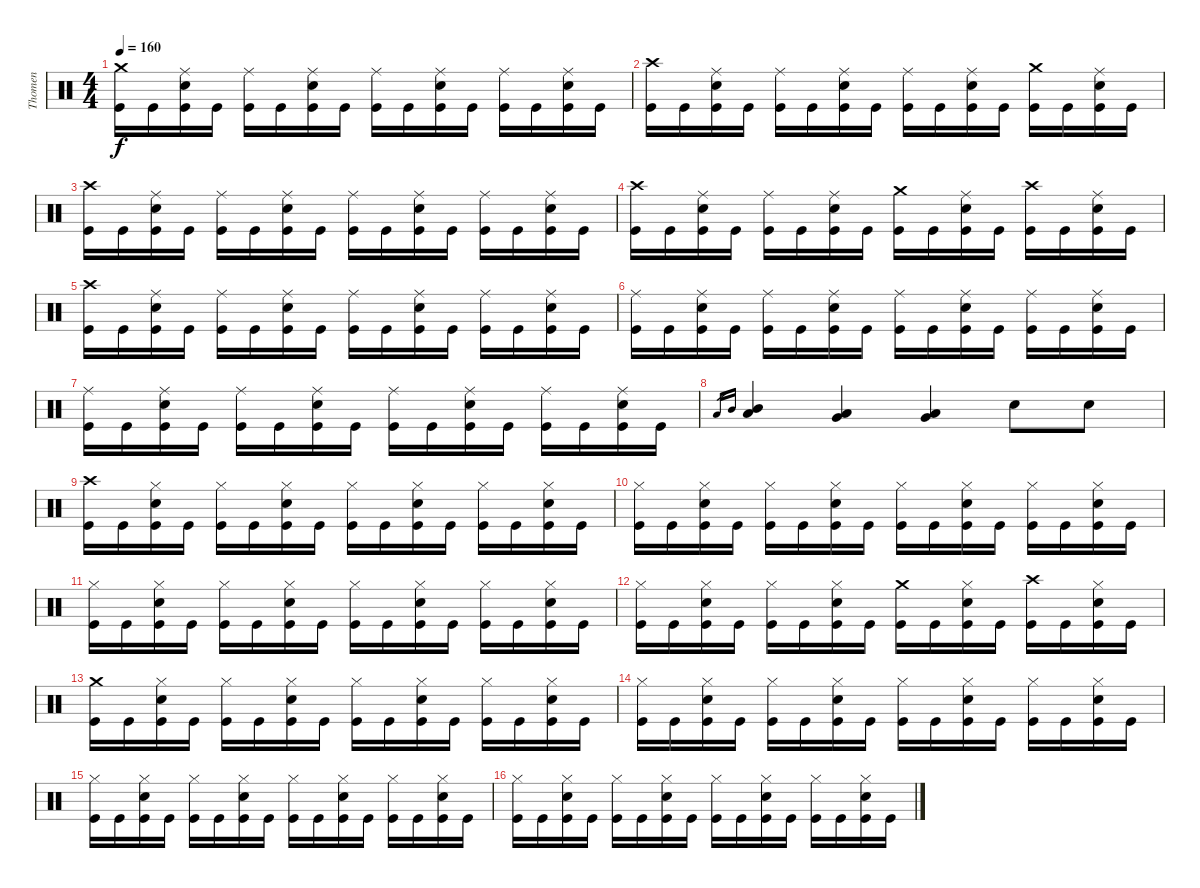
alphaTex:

\track ("Thomen" "Thomen") {instrument percussion}
\staff {score}
\articulation defaults
\ts (4 4)
\tempo 160
\clef neutral
\ks c
("Crash medium (hit)" "Kick (hit)").16{dy f} "Kick (hit)".16 ("Ride (middle)" "Snare (hit) 2" "Kick (hit)").16 "Kick (hit)".16 ("Ride (middle)" "Kick (hit)").16 "Kick (hit)".16 ("Ride (middle)" "Snare (hit) 2" "Kick (hit)").16 "Kick (hit)".16 ("Ride (middle)" "Kick (hit)").16 "Kick (hit)".16 ("Ride (middle)" "Snare (hit) 2" "Kick (hit)").16 "Kick (hit)".16 ("Ride (middle)" "Kick (hit)").16 "Kick (hit)".16 ("Ride (middle)" "Snare (hit) 2" "Kick (hit)").16 "Kick (hit)".16 |
("Crash high (hit)" "Kick (hit)").16 "Kick (hit)".16 ("Ride (middle)" "Snare (hit) 2" "Kick (hit)").16 "Kick (hit)".16 ("Ride (middle)" "Kick (hit)").16 "Kick (hit)".16 ("Ride (middle)" "Snare (hit) 2" "Kick (hit)").16 "Kick (hit)".16 ("Ride (middle)" "Kick (hit)").16 "Kick (hit)".16 ("Ride (middle)" "Snare (hit) 2" "Kick (hit)").16 "Kick (hit)".16 ("Crash medium (hit)" "Kick (hit)").16 "Kick (hit)".16 ("Ride (middle)" "Snare (hit) 2" "Kick (hit)").16 "Kick (hit)".16 |
("Crash high (hit)" "Kick (hit)").16 "Kick (hit)".16 ("Ride (middle)" "Snare (hit) 2" "Kick (hit)").16 "Kick (hit)".16 ("Ride (middle)" "Kick (hit)").16 "Kick (hit)".16 ("Ride (middle)" "Snare (hit) 2" "Kick (hit)").16 "Kick (hit)".16 ("Ride (middle)" "Kick (hit)").16 "Kick (hit)".16 ("Ride (middle)" "Snare (hit) 2" "Kick (hit)").16 "Kick (hit)".16 ("Ride (middle)" "Kick (hit)").16 "Kick (hit)".16 ("Ride (middle)" "Snare (hit) 2" "Kick (hit)").16 "Kick (hit)".16 |
("Crash high (hit)" "Kick (hit)").16 "Kick (hit)".16 ("Ride (middle)" "Snare (hit) 2" "Kick (hit)").16 "Kick (hit)".16 ("Ride (middle)" "Kick (hit)").16 "Kick (hit)".16 ("Ride (middle)" "Snare (hit) 2" "Kick (hit)").16 "Kick (hit)".16 ("Crash medium (hit)" "Kick (hit)").16 "Kick (hit)".16 ("Ride (middle)" "Snare (hit) 2" "Kick (hit)").16 "Kick (hit)".16 ("Crash high (hit)" "Kick (hit)").16 "Kick (hit)".16 ("Ride (middle)" "Snare (hit) 2" "Kick (hit)").16 "Kick (hit)".16 |
("Crash high (hit)" "Kick (hit)").16 "Kick (hit)".16 ("Ride (middle)" "Snare (hit) 2" "Kick (hit)").16 "Kick (hit)".16 ("Ride (middle)" "Kick (hit)").16 "Kick (hit)".16 ("Ride (middle)" "Snare (hit) 2" "Kick (hit)").16 "Kick (hit)".16 ("Ride (middle)" "Kick (hit)").16 "Kick (hit)".16 ("Ride (middle)" "Snare (hit) 2" "Kick (hit)").16 "Kick (hit)".16 ("Ride (middle)" "Kick (hit)").16 "Kick (hit)".16 ("Ride (middle)" "Snare (hit) 2" "Kick (hit)").16 "Kick (hit)".16 |
("Ride (middle)" "Kick (hit)").16 "Kick (hit)".16 ("Ride (middle)" "Snare (hit) 2" "Kick (hit)").16 "Kick (hit)".16 ("Ride (middle)" "Kick (hit)").16 "Kick (hit)".16 ("Ride (middle)" "Snare (hit) 2" "Kick (hit)").16 "Kick (hit)".16 ("Ride (middle)" "Kick (hit)").16 "Kick (hit)".16 ("Ride (middle)" "Snare (hit) 2" "Kick (hit)").16 "Kick (hit)".16 ("Ride (middle)" "Kick (hit)").16 "Kick (hit)".16 ("Ride (middle)" "Snare (hit) 2" "Kick (hit)").16 "Kick (hit)".16 |
("Ride (middle)" "Kick (hit)").16 "Kick (hit)".16 ("Ride (middle)" "Snare (hit) 2" "Kick (hit)").16 "Kick (hit)".16 ("Ride (middle)" "Kick (hit)").16 "Kick (hit)".16 ("Ride (middle)" "Snare (hit) 2" "Kick (hit)").16 "Kick (hit)".16 ("Ride (middle)" "Kick (hit)").16 "Kick (hit)".16 ("Ride (middle)" "Snare (hit) 2" "Kick (hit)").16 "Kick (hit)".16 ("Ride (middle)" "Kick (hit)").16 "Kick (hit)".16 ("Ride (middle)" "Snare (hit) 2" "Kick (hit)").16 "Kick (hit)".16 |
"Low Tom (hit)".16{gr} "Mid Tom (hit)".16{gr} ("Low Tom (hit)" "Mid Tom (hit)").4 ("Very Low Tom (hit)" "Low Tom (hit)").4 ("Low Floor Tom (hit)" "Very Low Tom (hit)").4 "Snare (hit) 2".8 "Snare (hit) 2".8 |
("Crash high (hit)" "Kick (hit)").16 "Kick (hit)".16 ("Hi-Hat (closed)" "Snare (hit) 2" "Kick (hit)").16 "Kick (hit)".16 ("Hi-Hat (closed)" "Kick (hit)").16 "Kick (hit)".16 ("Hi-Hat (closed)" "Snare (hit) 2" "Kick (hit)").16 "Kick (hit)".16 ("Hi-Hat (closed)" "Kick (hit)").16 "Kick (hit)".16 ("Hi-Hat (closed)" "Snare (hit) 2" "Kick (hit)").16 "Kick (hit)".16 ("Hi-Hat (closed)" "Kick (hit)").16 "Kick (hit)".16 ("Hi-Hat (closed)" "Snare (hit) 2" "Kick (hit)").16 "Kick (hit)".16 |
("Hi-Hat (closed)" "Kick (hit)").16 "Kick (hit)".16 ("Hi-Hat (closed)" "Snare (hit) 2" "Kick (hit)").16 "Kick (hit)".16 ("Hi-Hat (closed)" "Kick (hit)").16 "Kick (hit)".16 ("Hi-Hat (closed)" "Snare (hit) 2" "Kick (hit)").16 "Kick (hit)".16 ("Hi-Hat (closed)" "Kick (hit)").16 "Kick (hit)".16 ("Hi-Hat (closed)" "Snare (hit) 2" "Kick (hit)").16 "Kick (hit)".16 ("Hi-Hat (closed)" "Kick (hit)").16 "Kick (hit)".16 ("Hi-Hat (closed)" "Snare (hit) 2" "Kick (hit)").16 "Kick (hit)".16 |
("Hi-Hat (closed)" "Kick (hit)").16 "Kick (hit)".16 ("Hi-Hat (closed)" "Snare (hit) 2" "Kick (hit)").16 "Kick (hit)".16 ("Hi-Hat (closed)" "Kick (hit)").16 "Kick (hit)".16 ("Hi-Hat (closed)" "Snare (hit) 2" "Kick (hit)").16 "Kick (hit)".16 ("Hi-Hat (closed)" "Kick (hit)").16 "Kick (hit)".16 ("Hi-Hat (closed)" "Snare (hit) 2" "Kick (hit)").16 "Kick (hit)".16 ("Hi-Hat (closed)" "Kick (hit)").16 "Kick (hit)".16 ("Hi-Hat (closed)" "Snare (hit) 2" "Kick (hit)").16 "Kick (hit)".16 |
("Hi-Hat (closed)" "Kick (hit)").16 "Kick (hit)".16 ("Hi-Hat (closed)" "Snare (hit) 2" "Kick (hit)").16 "Kick (hit)".16 ("Hi-Hat (closed)" "Kick (hit)").16 "Kick (hit)".16 ("Hi-Hat (closed)" "Snare (hit) 2" "Kick (hit)").16 "Kick (hit)".16 ("Crash medium (hit)" "Kick (hit)").16 "Kick (hit)".16 ("Hi-Hat (closed)" "Snare (hit) 2" "Kick (hit)").16 "Kick (hit)".16 ("Crash high (hit)" "Kick (hit)").16 "Kick (hit)".16 ("Hi-Hat (closed)" "Snare (hit) 2" "Kick (hit)").16 "Kick (hit)".16 |
("Crash medium (hit)" "Kick (hit)").16 "Kick (hit)".16 ("Hi-Hat (closed)" "Snare (hit) 2" "Kick (hit)").16 "Kick (hit)".16 ("Hi-Hat (closed)" "Kick (hit)").16 "Kick (hit)".16 ("Hi-Hat (closed)" "Snare (hit) 2" "Kick (hit)").16 "Kick (hit)".16 ("Hi-Hat (closed)" "Kick (hit)").16 "Kick (hit)".16 ("Hi-Hat (closed)" "Snare (hit) 2" "Kick (hit)").16 "Kick (hit)".16 ("Hi-Hat (closed)" "Kick (hit)").16 "Kick (hit)".16 ("Hi-Hat (closed)" "Snare (hit) 2" "Kick (hit)").16 "Kick (hit)".16 |
("Hi-Hat (closed)" "Kick (hit)").16 "Kick (hit)".16 ("Hi-Hat (closed)" "Snare (hit) 2" "Kick (hit)").16 "Kick (hit)".16 ("Hi-Hat (closed)" "Kick (hit)").16 "Kick (hit)".16 ("Hi-Hat (closed)" "Snare (hit) 2" "Kick (hit)").16 "Kick (hit)".16 ("Hi-Hat (closed)" "Kick (hit)").16 "Kick (hit)".16 ("Hi-Hat (closed)" "Snare (hit) 2" "Kick (hit)").16 "Kick (hit)".16 ("Hi-Hat (closed)" "Kick (hit)").16 "Kick (hit)".16 ("Hi-Hat (closed)" "Snare (hit) 2" "Kick (hit)").16 "Kick (hit)".16 |
("Hi-Hat (closed)" "Kick (hit)").16 "Kick (hit)".16 ("Hi-Hat (closed)" "Snare (hit) 2" "Kick (hit)").16 "Kick (hit)".16 ("Hi-Hat (closed)" "Kick (hit)").16 "Kick (hit)".16 ("Hi-Hat (closed)" "Snare (hit) 2" "Kick (hit)").16 "Kick (hit)".16 ("Hi-Hat (closed)" "Kick (hit)").16 "Kick (hit)".16 ("Hi-Hat (closed)" "Snare (hit) 2" "Kick (hit)").16 "Kick (hit)".16 ("Hi-Hat (closed)" "Kick (hit)").16 "Kick (hit)".16 ("Hi-Hat (closed)" "Snare (hit) 2" "Kick (hit)").16 "Kick (hit)".16 |
("Hi-Hat (closed)" "Kick (hit)").16 "Kick (hit)".16 ("Hi-Hat (closed)" "Snare (hit) 2" "Kick (hit)").16 "Kick (hit)".16 ("Hi-Hat (closed)" "Kick (hit)").16 "Kick (hit)".16 ("Hi-Hat (closed)" "Snare (hit) 2" "Kick (hit)").16 "Kick (hit)".16 ("Hi-Hat (closed)" "Kick (hit)").16 "Kick (hit)".16 ("Hi-Hat (closed)" "Snare (hit) 2" "Kick (hit)").16 "Kick (hit)".16 ("Hi-Hat (closed)" "Kick (hit)").16 "Kick (hit)".16 ("Hi-Hat (closed)" "Snare (hit) 2" "Kick (hit)").16 "Kick (hit)".16
